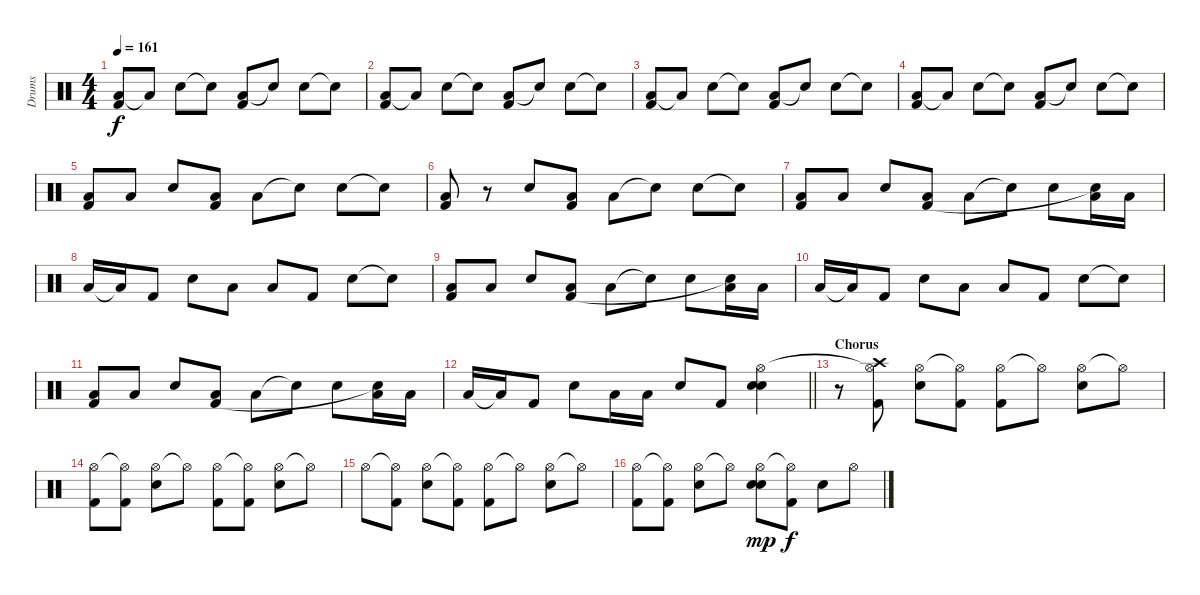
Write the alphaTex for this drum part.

\track ("Drums" "Drums") {instrument percussion}
\staff {score}
\articulation defaults
\ts (4 4)
\tempo 161
\clef neutral
\ks c
("Low Tom (hit)" "Kick (hit) 2").8{dy f volume 14} "Low Tom (hit)"{t}.8 "Electric Snare (hit)".8 "Snare (hit)"{t}.8 ("Low Tom (hit)" "Kick (hit) 2").8 "Snare (hit)"{t}.8 "Electric Snare (hit)".8 "Snare (hit)"{t}.8 |
("Low Tom (hit)" "Kick (hit) 2").8 "Low Tom (hit)"{t}.8 "Electric Snare (hit)".8 "Snare (hit)"{t}.8 ("Low Tom (hit)" "Kick (hit) 2").8 "Snare (hit)"{t}.8 "Electric Snare (hit)".8 "Snare (hit)"{t}.8 |
("Low Tom (hit)" "Kick (hit) 2").8 "Low Tom (hit)"{t}.8 "Electric Snare (hit)".8 "Snare (hit)"{t}.8 ("Low Tom (hit)" "Kick (hit) 2").8 "Snare (hit)"{t}.8 "Electric Snare (hit)".8 "Snare (hit)"{t}.8 |
("Low Tom (hit)" "Kick (hit) 2").8 "Low Tom (hit)"{t}.8 "Electric Snare (hit)".8 "Snare (hit)"{t}.8 ("Low Tom (hit)" "Kick (hit) 2").8 "Snare (hit)"{t}.8 "Electric Snare (hit)".8 "Snare (hit)"{t}.8 |
("Low Tom (hit)" "Kick (hit) 2").8 "Low Tom (hit)".8 "Electric Snare (hit)".8 ("Low Tom (hit)" "Kick (hit) 2").8 "Low Tom (hit)".8 "Snare (hit)"{t}.8 "Electric Snare (hit)".8 "Snare (hit)"{t}.8 |
("Low Tom (hit)" "Kick (hit) 2").8 r.8 "Electric Snare (hit)".8 ("Low Tom (hit)" "Kick (hit) 2").8 "Low Tom (hit)".8 "Snare (hit)"{t}.8 "Electric Snare (hit)".8 "Snare (hit)"{t}.8 |
("Low Tom (hit)" "Kick (hit) 2").8 "Low Tom (hit)".8 "Electric Snare (hit)".8 ("Low Tom (hit)" "Kick (hit) 2").8 "Low Tom (hit)".8 "Snare (hit)"{t}.8 "Electric Snare (hit)".8 ("Low Tom (hit)" "Snare (hit)"{t}).16 "Low Tom (hit)".16 |
"Low Tom (hit)".16 "Low Tom (hit)"{t}.16 "Kick (hit) 2".8 "Electric Snare (hit)".8 "Low Tom (hit)".8 "Low Tom (hit)".8 "Kick (hit) 2".8 "Electric Snare (hit)".8 "Snare (hit)"{t}.8 |
("Low Tom (hit)" "Kick (hit) 2").8 "Low Tom (hit)".8 "Electric Snare (hit)".8 ("Low Tom (hit)" "Kick (hit) 2").8 "Low Tom (hit)".8 "Snare (hit)"{t}.8 "Electric Snare (hit)".8 ("Low Tom (hit)" "Snare (hit)"{t}).16 "Low Tom (hit)".16 |
"Low Tom (hit)".16 "Low Tom (hit)"{t}.16 "Kick (hit) 2".8 "Electric Snare (hit)".8 "Low Tom (hit)".8 "Low Tom (hit)".8 "Kick (hit) 2".8 "Electric Snare (hit)".8 "Snare (hit)"{t}.8 |
("Low Tom (hit)" "Kick (hit) 2").8 "Low Tom (hit)".8 "Electric Snare (hit)".8 ("Low Tom (hit)" "Kick (hit) 2").8 "Low Tom (hit)".8 "Snare (hit)"{t}.8 "Electric Snare (hit)".8 ("Low Tom (hit)" "Snare (hit)"{t}).16 "Low Tom (hit)".16 |
\barLineRight lightlight "Low Tom (hit)".16 "Low Tom (hit)"{t}.16 "Kick (hit) 2".8 "Electric Snare (hit)".8 "Low Tom (hit)".16 "Low Tom (hit)".16 "Electric Snare (hit)".8 "Kick (hit) 2".8
("Hi-Hat (open)" "Electric Snare (hit)" "Electric Snare (hit)").4 |
\section ("" "Chorus")
r.8 ("Hi-Hat (open)"{t} "Kick (hit) 2" "Crash high (hit)").8 ("Hi-Hat (open)" "Electric Snare (hit)").8 ("Hi-Hat (open)"{t} "Kick (hit) 2").8 ("Hi-Hat (open)" "Kick (hit) 2").8 "Hi-Hat (open)"{t}.8 ("Hi-Hat (open)" "Electric Snare (hit)").8 "Hi-Hat (open)"{t}.8 |
("Hi-Hat (open)" "Kick (hit) 2").8 ("Hi-Hat (open)"{t} "Kick (hit) 2").8 ("Hi-Hat (open)" "Electric Snare (hit)").8 "Hi-Hat (open)"{t}.8 ("Hi-Hat (open)" "Kick (hit) 2").8 ("Hi-Hat (open)"{t} "Kick (hit) 2").8 ("Hi-Hat (open)" "Electric Snare (hit)").8 "Hi-Hat (open)"{t}.8 |
"Hi-Hat (open)".8 ("Hi-Hat (open)"{t} "Kick (hit) 2").8 ("Hi-Hat (open)" "Electric Snare (hit)").8 ("Hi-Hat (open)"{t} "Kick (hit) 2").8 ("Hi-Hat (open)" "Kick (hit) 2").8 "Hi-Hat (open)"{t}.8 ("Hi-Hat (open)" "Electric Snare (hit)").8 "Hi-Hat (open)"{t}.8 |
("Hi-Hat (open)" "Kick (hit) 2").8 ("Hi-Hat (open)"{t} "Kick (hit) 2").8 ("Hi-Hat (open)" "Electric Snare (hit)").8 "Hi-Hat (open)"{t}.8 ("Hi-Hat (open)" "Electric Snare (hit)" "Electric Snare (hit)").8{dy mp} ("Hi-Hat (open)"{t} "Kick (hit) 2").8{dy f} "Electric Snare (hit)".8 "Hi-Hat (open)".8
